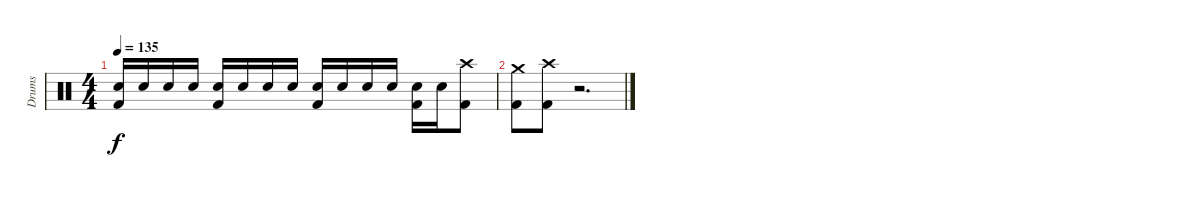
\track ("Drums" "Drums") {instrument percussion}
\staff {score}
\articulation defaults
\ts (4 4)
\tempo 135
\clef neutral
\ks c
("Electric Snare (hit)" "Kick (hit) 2").16{dy f} "Electric Snare (hit)".16 "Electric Snare (hit)".16 "Electric Snare (hit)".16 ("Electric Snare (hit)" "Kick (hit) 2").16 "Electric Snare (hit)".16 "Electric Snare (hit)".16 "Electric Snare (hit)".16 ("Electric Snare (hit)" "Kick (hit) 2").16 "Electric Snare (hit)".16 "Electric Snare (hit)".16 "Electric Snare (hit)".16 ("Electric Snare (hit)" "Kick (hit) 2").16 "Electric Snare (hit)".16 ("Crash high (hit)" "Kick (hit) 2").8 |
("Crash medium (hit)" "Kick (hit) 2").8 ("Crash high (hit)" "Kick (hit) 2").8 r.2{d}
